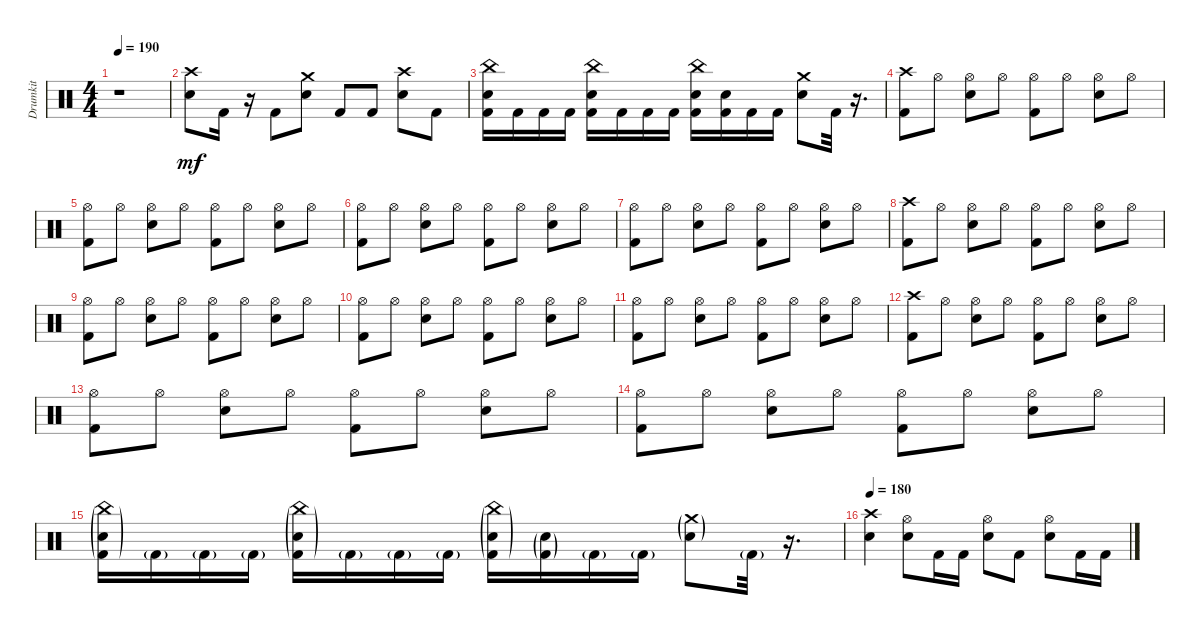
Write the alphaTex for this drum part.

\track ("Drumkit" "Drumkit") {instrument percussion}
\staff {score}
\articulation defaults
\ts (4 4)
\tempo 190
\clef neutral
\ks c
r.1{dy mf} |
("Crash high (hit)" "Snare (hit) 2").8 "Kick (hit) 2".16 r.16 "Kick (hit) 2".8 ("Crash medium (hit)" "Snare (hit) 2").8 "Kick (hit) 2".8 "Kick (hit) 2".8 ("Crash high (hit)" "Snare (hit) 2").8 "Kick (hit) 2".8 |
("China (hit)" "Snare (hit) 2" "Kick (hit) 2").16 "Kick (hit) 2".16 "Kick (hit) 2".16 "Kick (hit) 2".16 ("China (hit)" "Snare (hit) 2" "Kick (hit) 2").16 "Kick (hit) 2".16 "Kick (hit) 2".16 "Kick (hit) 2".16 ("China (hit)" "Snare (hit) 2" "Kick (hit) 2").16 ("Snare (hit) 2" "Kick (hit) 2").16 "Kick (hit) 2".16 "Kick (hit) 2".16 ("Crash medium (hit)" "Snare (hit) 2").8 "Kick (hit) 2".32 r.16{d} |
("Crash high (hit)" "Kick (hit) 2").8 "Hi-Hat (open)".8 ("Hi-Hat (open)" "Snare (hit) 2").8 "Hi-Hat (open)".8 ("Hi-Hat (open)" "Kick (hit) 2").8 "Hi-Hat (open)".8 ("Hi-Hat (open)" "Snare (hit) 2").8 "Hi-Hat (open)".8 |
("Hi-Hat (open)" "Kick (hit) 2").8 "Hi-Hat (open)".8 ("Hi-Hat (open)" "Snare (hit) 2").8 "Hi-Hat (open)".8 ("Hi-Hat (open)" "Kick (hit) 2").8 "Hi-Hat (open)".8 ("Hi-Hat (open)" "Snare (hit) 2").8 "Hi-Hat (open)".8 |
("Hi-Hat (open)" "Kick (hit) 2").8 "Hi-Hat (open)".8 ("Hi-Hat (open)" "Snare (hit) 2").8 "Hi-Hat (open)".8 ("Hi-Hat (open)" "Kick (hit) 2").8 "Hi-Hat (open)".8 ("Hi-Hat (open)" "Snare (hit) 2").8 "Hi-Hat (open)".8 |
("Hi-Hat (open)" "Kick (hit) 2").8 "Hi-Hat (open)".8 ("Hi-Hat (open)" "Snare (hit) 2").8 "Hi-Hat (open)".8 ("Hi-Hat (open)" "Kick (hit) 2").8 "Hi-Hat (open)".8 ("Hi-Hat (open)" "Snare (hit) 2").8 "Hi-Hat (open)".8 |
("Crash high (hit)" "Kick (hit) 2").8 "Hi-Hat (open)".8 ("Hi-Hat (open)" "Snare (hit) 2").8 "Hi-Hat (open)".8 ("Hi-Hat (open)" "Kick (hit) 2").8 "Hi-Hat (open)".8 ("Hi-Hat (open)" "Snare (hit) 2").8 "Hi-Hat (open)".8 |
("Hi-Hat (open)" "Kick (hit) 2").8 "Hi-Hat (open)".8 ("Hi-Hat (open)" "Snare (hit) 2").8 "Hi-Hat (open)".8 ("Hi-Hat (open)" "Kick (hit) 2").8 "Hi-Hat (open)".8 ("Hi-Hat (open)" "Snare (hit) 2").8 "Hi-Hat (open)".8 |
("Hi-Hat (open)" "Kick (hit) 2").8 "Hi-Hat (open)".8 ("Hi-Hat (open)" "Snare (hit) 2").8 "Hi-Hat (open)".8 ("Hi-Hat (open)" "Kick (hit) 2").8 "Hi-Hat (open)".8 ("Hi-Hat (open)" "Snare (hit) 2").8 "Hi-Hat (open)".8 |
("Hi-Hat (open)" "Kick (hit) 2").8 "Hi-Hat (open)".8 ("Hi-Hat (open)" "Snare (hit) 2").8 "Hi-Hat (open)".8 ("Hi-Hat (open)" "Kick (hit) 2").8 "Hi-Hat (open)".8 ("Hi-Hat (open)" "Snare (hit) 2").8 "Hi-Hat (open)".8 |
("Crash high (hit)" "Kick (hit) 2").8 "Hi-Hat (open)".8 ("Hi-Hat (open)" "Snare (hit) 2").8 "Hi-Hat (open)".8 ("Hi-Hat (open)" "Kick (hit) 2").8 "Hi-Hat (open)".8 ("Hi-Hat (open)" "Snare (hit) 2").8 "Hi-Hat (open)".8 |
("Hi-Hat (open)" "Kick (hit) 2").8 "Hi-Hat (open)".8 ("Hi-Hat (open)" "Snare (hit) 2").8 "Hi-Hat (open)".8 ("Hi-Hat (open)" "Kick (hit) 2").8 "Hi-Hat (open)".8 ("Hi-Hat (open)" "Snare (hit) 2").8 "Hi-Hat (open)".8 |
("Hi-Hat (open)" "Kick (hit) 2").8 "Hi-Hat (open)".8 ("Hi-Hat (open)" "Snare (hit) 2").8 "Hi-Hat (open)".8 ("Hi-Hat (open)" "Kick (hit) 2").8 "Hi-Hat (open)".8 ("Hi-Hat (open)" "Snare (hit) 2").8 "Hi-Hat (open)".8 |
("China (hit)"{g} "Snare (hit) 2"{g} "Kick (hit) 2"{g}).16 "Kick (hit) 2"{g}.16 "Kick (hit) 2"{g}.16 "Kick (hit) 2"{g}.16 ("China (hit)"{g} "Snare (hit) 2"{g} "Kick (hit) 2"{g}).16 "Kick (hit) 2"{g}.16 "Kick (hit) 2"{g}.16 "Kick (hit) 2"{g}.16 ("China (hit)"{g} "Snare (hit) 2"{g} "Kick (hit) 2"{g}).16 ("Snare (hit) 2"{g} "Kick (hit) 2"{g}).16 "Kick (hit) 2"{g}.16 "Kick (hit) 2"{g}.16 ("Crash medium (hit)"{g} "Snare (hit) 2"{g}).8 "Kick (hit) 2"{g}.32 r.16{d} |
\tempo 180
("Crash high (hit)" "Snare (hit) 2").4 ("Hi-Hat (open)" "Snare (hit) 2").8 "Kick (hit) 2".16 "Kick (hit) 2".16 ("Hi-Hat (open)" "Snare (hit) 2").8 "Kick (hit) 2".8 ("Hi-Hat (open)" "Snare (hit) 2").8 "Kick (hit) 2".16 "Kick (hit) 2".16
